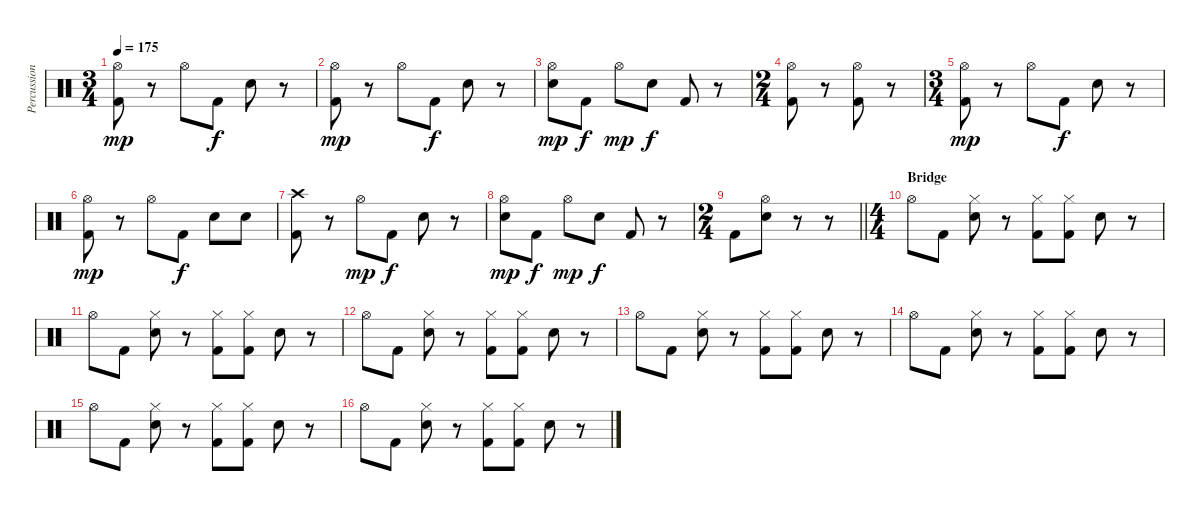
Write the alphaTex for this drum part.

\track ("Percussion" "Percussion") {instrument percussion}
\staff {score}
\articulation defaults
\ts (3 4)
\tempo 175
\clef neutral
\ks c
("Hi-Hat (open)" "Kick (hit) 2").8{dy mp} r.8 "Hi-Hat (open)".8 "Kick (hit) 2".8{dy f} "Snare (hit) 2".8 r.8 |
("Hi-Hat (open)" "Kick (hit) 2").8{dy mp} r.8 "Hi-Hat (open)".8 "Kick (hit) 2".8{dy f} "Snare (hit) 2".8 r.8 |
("Hi-Hat (open)" "Snare (hit) 2").8{dy mp} "Kick (hit) 2".8{dy f} "Hi-Hat (open)".8{dy mp} "Snare (hit) 2".8{dy f} "Kick (hit) 2".8 r.8 |
\ts (2 4)
("Hi-Hat (open)" "Kick (hit) 2").8 r.8 ("Hi-Hat (open)" "Kick (hit) 2").8 r.8 |
\ts (3 4)
("Hi-Hat (open)" "Kick (hit) 2").8{dy mp} r.8 "Hi-Hat (open)".8 "Kick (hit) 2".8{dy f} "Snare (hit) 2".8 r.8 |
("Hi-Hat (open)" "Kick (hit) 2").8{dy mp} r.8 "Hi-Hat (open)".8 "Kick (hit) 2".8{dy f} "Snare (hit) 2".8 "Snare (hit) 2".8 |
("Crash high (hit)" "Kick (hit) 2").8 r.8 "Hi-Hat (open)".8{dy mp} "Kick (hit) 2".8{dy f} "Snare (hit) 2".8 r.8 |
("Hi-Hat (open)" "Snare (hit) 2").8{dy mp} "Kick (hit) 2".8{dy f} "Hi-Hat (open)".8{dy mp} "Snare (hit) 2".8{dy f} "Kick (hit) 2".8 r.8 |
\ts (2 4)
\barLineRight lightlight "Kick (hit) 2".8
("Hi-Hat (open)" "Snare (hit) 2").8 r.8 r.8 |
\ts (4 4)
\section ("" "Bridge")
"Hi-Hat (open)".8{volume 6} "Kick (hit) 2".8 ("Hi-Hat (closed)" "Snare (hit) 2").8 r.8 ("Hi-Hat (closed)" "Kick (hit) 2").8 ("Hi-Hat (closed)" "Kick (hit) 2").8 "Snare (hit) 2".8 r.8 |
"Hi-Hat (open)".8 "Kick (hit) 2".8 ("Hi-Hat (closed)" "Snare (hit) 2").8 r.8 ("Hi-Hat (closed)" "Kick (hit) 2").8 ("Hi-Hat (closed)" "Kick (hit) 2").8 "Snare (hit) 2".8 r.8 |
"Hi-Hat (open)".8 "Kick (hit) 2".8 ("Hi-Hat (closed)" "Snare (hit) 2").8 r.8 ("Hi-Hat (closed)" "Kick (hit) 2").8 ("Hi-Hat (closed)" "Kick (hit) 2").8 "Snare (hit) 2".8 r.8 |
"Hi-Hat (open)".8 "Kick (hit) 2".8 ("Hi-Hat (closed)" "Snare (hit) 2").8 r.8 ("Hi-Hat (closed)" "Kick (hit) 2").8 ("Hi-Hat (closed)" "Kick (hit) 2").8 "Snare (hit) 2".8 r.8 |
"Hi-Hat (open)".8 "Kick (hit) 2".8 ("Hi-Hat (closed)" "Snare (hit) 2").8 r.8 ("Hi-Hat (closed)" "Kick (hit) 2").8 ("Hi-Hat (closed)" "Kick (hit) 2").8 "Snare (hit) 2".8 r.8 |
"Hi-Hat (open)".8 "Kick (hit) 2".8 ("Hi-Hat (closed)" "Snare (hit) 2").8 r.8 ("Hi-Hat (closed)" "Kick (hit) 2").8 ("Hi-Hat (closed)" "Kick (hit) 2").8 "Snare (hit) 2".8 r.8 |
"Hi-Hat (open)".8 "Kick (hit) 2".8 ("Hi-Hat (closed)" "Snare (hit) 2").8 r.8 ("Hi-Hat (closed)" "Kick (hit) 2").8 ("Hi-Hat (closed)" "Kick (hit) 2").8 "Snare (hit) 2".8 r.8
